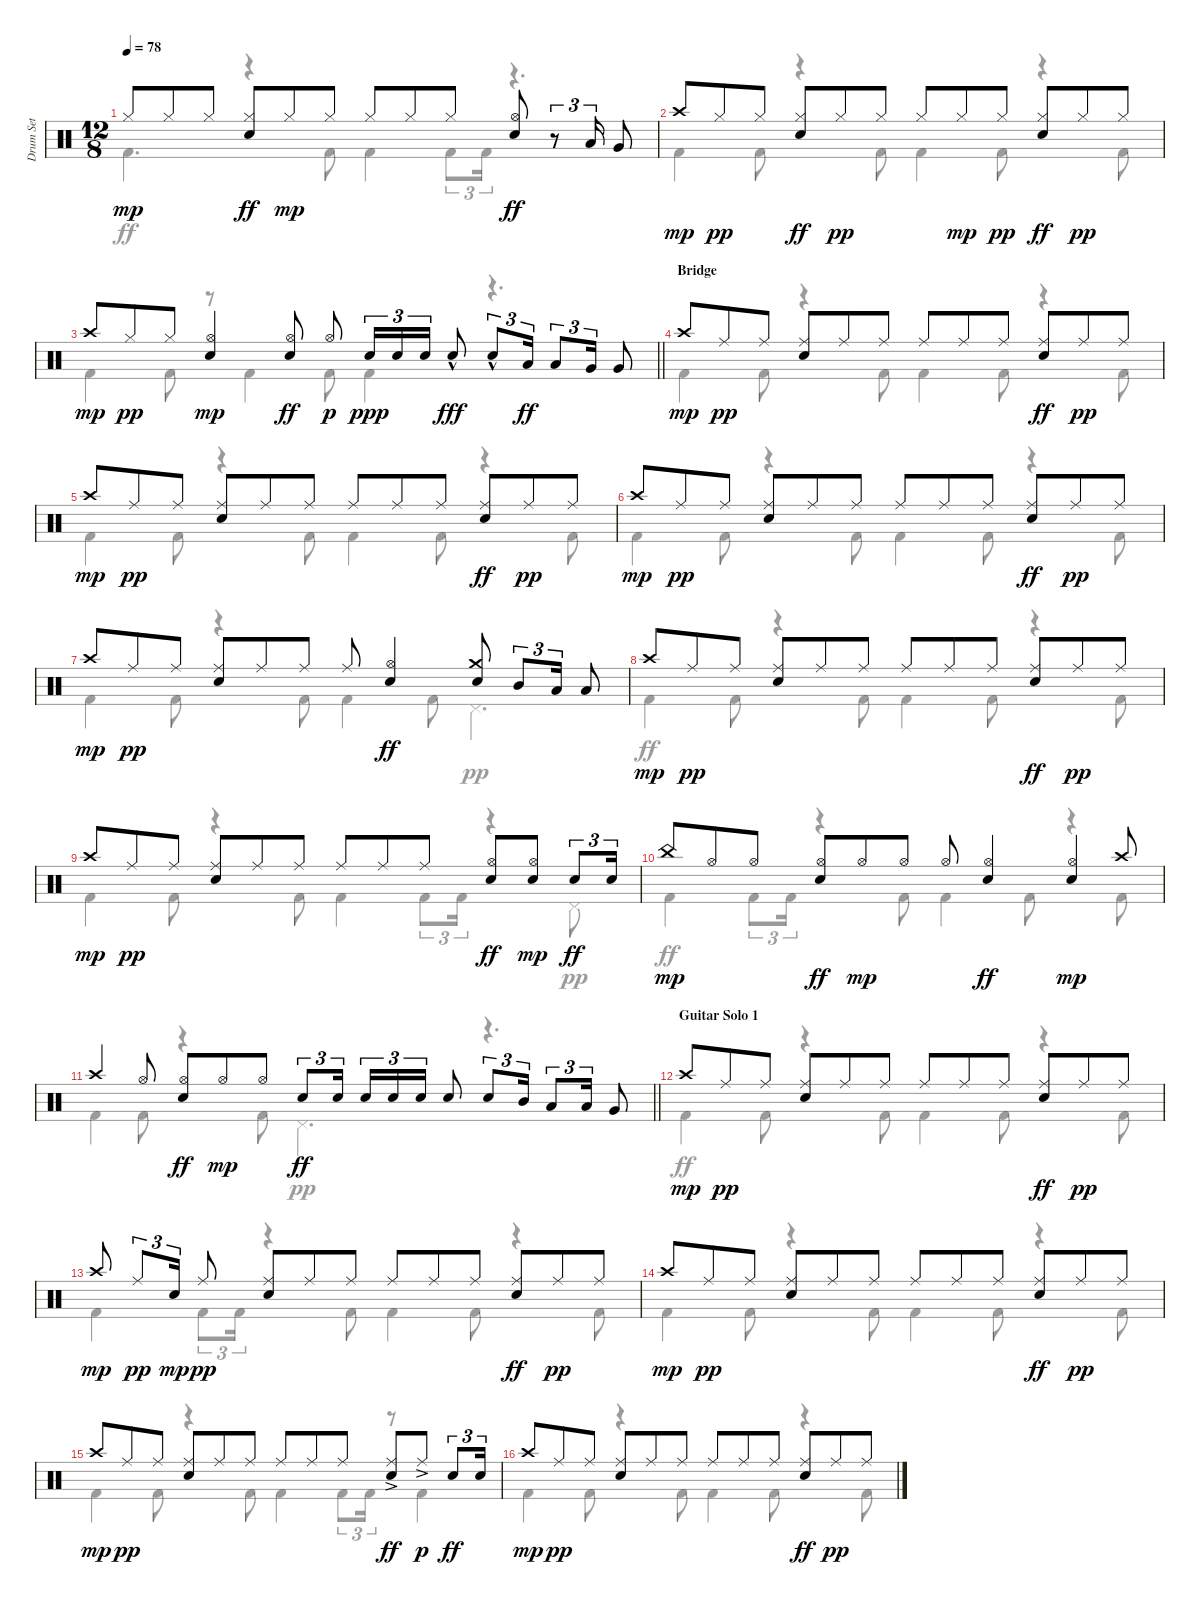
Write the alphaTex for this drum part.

\track ("Drum Set" "Drum Set") {instrument percussion}
\staff {score}
\articulation defaults
\voice
\ts (12 8)
\tempo 78
\clef neutral
\ks c "Hi-Hat (closed)".8{dy mp} "Hi-Hat (closed)".8 "Hi-Hat (closed)".8
("Hi-Hat (closed)" "Electric Snare (hit)").8{dy ff} "Hi-Hat (closed)".8{dy mp} "Hi-Hat (closed)".8 "Hi-Hat (closed)".8 "Hi-Hat (closed)".8 "Hi-Hat (closed)".8 ("Hi-Hat (open)" "Electric Snare (hit)").8{dy ff} r.8{tu (3 2)} "Low Tom (hit)".16{tu (3 2)} "Very Low Tom (hit)".8 |
"Crash high (hit)".8{dy mp} "Hi-Hat (closed)".8{dy pp} "Hi-Hat (closed)".8 ("Hi-Hat (closed)" "Electric Snare (hit)").8{dy ff} "Hi-Hat (closed)".8{dy pp} "Hi-Hat (closed)".8 "Hi-Hat (closed)".8 "Hi-Hat (closed)".8{dy mp} "Hi-Hat (closed)".8{dy pp} ("Hi-Hat (closed)" "Electric Snare (hit)").8{dy ff} "Hi-Hat (closed)".8{dy pp} "Hi-Hat (closed)".8 |
\barLineRight lightlight "Crash high (hit)".8{dy mp} "Hi-Hat (closed)".8{dy pp} "Hi-Hat (closed)".8
("Electric Snare (hit)" "Hi-Hat (open)").4{dy mp} ("Hi-Hat (open)" "Electric Snare (hit)").8{dy ff} "Hi-Hat (open)".8{dy p} "Snare (hit) 2".16{tu (3 2) dy ppp} "Snare (hit) 2".16{tu (3 2)} "Snare (hit) 2".16{tu (3 2)} "Electric Snare (hit)"{hac}.8{dy fff} "Electric Snare (hit)"{hac}.8{tu (3 2)} "Low Tom (hit)".16{tu (3 2) dy ff} "Low Tom (hit)".8{tu (3 2)} "Very Low Tom (hit)".16{tu (3 2)} "Very Low Tom (hit)".8 |
\section ("" "Bridge")
"Crash high (hit)".8{dy mp} "Ride (middle)".8{dy pp} "Ride (middle)".8 ("Electric Snare (hit)" "Ride (middle)").8 "Ride (middle)".8 "Ride (middle)".8 "Ride (middle)".8 "Ride (middle)".8 "Ride (middle)".8 ("Ride (middle)" "Electric Snare (hit)").8{dy ff} "Ride (middle)".8{dy pp} "Ride (middle)".8 |
"Crash high (hit)".8{dy mp} "Ride (middle)".8{dy pp} "Ride (middle)".8 ("Electric Snare (hit)" "Ride (middle)").8 "Ride (middle)".8 "Ride (middle)".8 "Ride (middle)".8 "Ride (middle)".8 "Ride (middle)".8 ("Ride (middle)" "Electric Snare (hit)").8{dy ff} "Ride (middle)".8{dy pp} "Ride (middle)".8 |
"Crash high (hit)".8{dy mp} "Ride (middle)".8{dy pp} "Ride (middle)".8 ("Electric Snare (hit)" "Ride (middle)").8 "Ride (middle)".8 "Ride (middle)".8 "Ride (middle)".8 "Ride (middle)".8 "Ride (middle)".8 ("Ride (middle)" "Electric Snare (hit)").8{dy ff} "Ride (middle)".8{dy pp} "Ride (middle)".8 |
"Crash high (hit)".8{dy mp} "Ride (middle)".8{dy pp} "Ride (middle)".8 ("Electric Snare (hit)" "Ride (middle)").8 "Ride (middle)".8 "Ride (middle)".8 "Ride (middle)".8 ("Hi-Hat (open)" "Electric Snare (hit)").4{dy ff} ("Crash medium (hit)" "Electric Snare (hit)").8 "Mid Tom (hit)".8{tu (3 2)} "Low Tom (hit)".16{tu (3 2)} "Low Tom (hit)".8 |
"Crash high (hit)".8{dy mp} "Ride (middle)".8{dy pp} "Ride (middle)".8 ("Electric Snare (hit)" "Ride (middle)").8 "Ride (middle)".8 "Ride (middle)".8 "Ride (middle)".8 "Ride (middle)".8 "Ride (middle)".8 ("Ride (middle)" "Electric Snare (hit)").8{dy ff} "Ride (middle)".8{dy pp} "Ride (middle)".8 |
"Crash high (hit)".8{dy mp} "Ride (middle)".8{dy pp} "Ride (middle)".8 ("Electric Snare (hit)" "Ride (middle)").8 "Ride (middle)".8 "Ride (middle)".8 "Ride (middle)".8 "Ride (middle)".8 "Ride (middle)".8 ("Hi-Hat (open)" "Electric Snare (hit)").8{dy ff} ("Electric Snare (hit)" "Hi-Hat (open)").8{dy mp} "Electric Snare (hit)".8{tu (3 2) dy ff} "Electric Snare (hit)".16{tu (3 2)} |
"China (hit)".8{dy mp} "Hi-Hat (open)".8 "Hi-Hat (open)".8 ("Hi-Hat (open)" "Electric Snare (hit)").8{dy ff} "Hi-Hat (open)".8{dy mp} "Hi-Hat (open)".8 "Hi-Hat (open)".8 ("Hi-Hat (open)" "Electric Snare (hit)").4{dy ff} ("Electric Snare (hit)" "Hi-Hat (open)").4{dy mp} "Crash high (hit)".8 |
\barLineRight lightlight "Crash high (hit)".4 "Hi-Hat (open)".8
("Hi-Hat (open)" "Electric Snare (hit)").8{dy ff} "Hi-Hat (open)".8{dy mp} "Hi-Hat (open)".8 "Electric Snare (hit)".8{tu (3 2) dy ff} "Electric Snare (hit)".16{tu (3 2) beam splitsecondary} "Electric Snare (hit)".16{tu (3 2)} "Electric Snare (hit)".16{tu (3 2)} "Electric Snare (hit)".16{tu (3 2)} "Electric Snare (hit)".8 "Electric Snare (hit)".8{tu (3 2)} "Mid Tom (hit)".16{tu (3 2)} "Low Tom (hit)".8{tu (3 2)} "Low Tom (hit)".16{tu (3 2)} "Very Low Tom (hit)".8 |
\section ("" "Guitar Solo 1")
"Crash high (hit)".8{dy mp} "Ride (middle)".8{dy pp} "Ride (middle)".8 ("Electric Snare (hit)" "Ride (middle)").8 "Ride (middle)".8 "Ride (middle)".8 "Ride (middle)".8 "Ride (middle)".8 "Ride (middle)".8 ("Ride (middle)" "Electric Snare (hit)").8{dy ff} "Ride (middle)".8{dy pp} "Ride (middle)".8 |
"Crash high (hit)".8{dy mp} "Ride (middle)".8{tu (3 2) dy pp} "Snare (hit) 2".16{tu (3 2) dy mp} "Ride (middle)".8{dy pp} ("Electric Snare (hit)" "Ride (middle)").8 "Ride (middle)".8 "Ride (middle)".8 "Ride (middle)".8 "Ride (middle)".8 "Ride (middle)".8 ("Ride (middle)" "Electric Snare (hit)").8{dy ff} "Ride (middle)".8{dy pp} "Ride (middle)".8 |
"Crash high (hit)".8{dy mp} "Ride (middle)".8{dy pp} "Ride (middle)".8 ("Electric Snare (hit)" "Ride (middle)").8 "Ride (middle)".8 "Ride (middle)".8 "Ride (middle)".8 "Ride (middle)".8 "Ride (middle)".8 ("Ride (middle)" "Electric Snare (hit)").8{dy ff} "Ride (middle)".8{dy pp} "Ride (middle)".8 |
"Crash high (hit)".8{dy mp} "Ride (middle)".8{dy pp} "Ride (middle)".8 ("Electric Snare (hit)" "Ride (middle)").8 "Ride (middle)".8 "Ride (middle)".8 "Ride (middle)".8 "Ride (middle)".8 "Ride (middle)".8 ("Ride (middle)"{ac} "Electric Snare (hit)").8{dy ff} "Ride (middle)"{ac}.8{dy p} "Electric Snare (hit)".8{tu (3 2) dy ff} "Electric Snare (hit)".16{tu (3 2)} |
"Crash high (hit)".8{dy mp} "Ride (middle)".8{dy pp} "Ride (middle)".8 ("Electric Snare (hit)" "Ride (middle)").8 "Ride (middle)".8 "Ride (middle)".8 "Ride (middle)".8 "Ride (middle)".8 "Ride (middle)".8 ("Ride (middle)" "Electric Snare (hit)").8{dy ff} "Ride (middle)".8{dy pp} "Ride (middle)".8
\voice
\clef neutral
\ottava regular
\simile none
\ks c "Kick (hit) 2".4{d dy ff}
r.4 "Kick (hit) 2".8 "Kick (hit) 2".4 "Kick (hit) 2".8{tu (3 2)} "Kick (hit) 2".16{tu (3 2)} r.4{d} |
"Kick (hit) 2".4 "Kick (hit) 2".8 r.4 "Kick (hit) 2".8 "Kick (hit) 2".4 "Kick (hit) 2".8 r.4 "Kick (hit) 2".8 |
\barLineRight lightlight "Kick (hit) 2".4 "Kick (hit) 2".8
r.8 "Kick (hit) 2".4 "Kick (hit) 2".8 "Kick (hit) 2".4 r.4{d} |
"Kick (hit) 2".4 "Kick (hit) 2".8 r.4 "Kick (hit) 2".8 "Kick (hit) 2".4 "Kick (hit) 2".8 r.4 "Kick (hit) 2".8 |
"Kick (hit) 2".4 "Kick (hit) 2".8 r.4 "Kick (hit) 2".8 "Kick (hit) 2".4 "Kick (hit) 2".8 r.4 "Kick (hit) 2".8 |
"Kick (hit) 2".4 "Kick (hit) 2".8 r.4 "Kick (hit) 2".8 "Kick (hit) 2".4 "Kick (hit) 2".8 r.4 "Kick (hit) 2".8 |
"Kick (hit) 2".4 "Kick (hit) 2".8 r.4 "Kick (hit) 2".8 "Kick (hit) 2".4 "Kick (hit) 2".8 "Pedal Hi-Hat (hit)".4{d dy pp} |
"Kick (hit) 2".4{dy ff} "Kick (hit) 2".8 r.4 "Kick (hit) 2".8 "Kick (hit) 2".4 "Kick (hit) 2".8 r.4 "Kick (hit) 2".8 |
"Kick (hit) 2".4 "Kick (hit) 2".8 r.4 "Kick (hit) 2".8 "Kick (hit) 2".4 "Kick (hit) 2".8{tu (3 2)} "Kick (hit) 2".16{tu (3 2)} r.4 "Pedal Hi-Hat (hit)".8{dy pp} |
"Kick (hit) 2".4{dy ff} "Kick (hit) 2".8{tu (3 2)} "Kick (hit) 2".16{tu (3 2)} r.4 "Kick (hit) 2".8 "Kick (hit) 2".4 "Kick (hit) 2".8 r.4 "Kick (hit) 2".8 |
\barLineRight lightlight "Kick (hit) 2".4 "Kick (hit) 2".8
r.4 "Kick (hit) 2".8 "Pedal Hi-Hat (hit)".4{d dy pp} r.4{d} |
"Kick (hit) 2".4{dy ff} "Kick (hit) 2".8 r.4 "Kick (hit) 2".8 "Kick (hit) 2".4 "Kick (hit) 2".8 r.4 "Kick (hit) 2".8 |
"Kick (hit) 2".4 "Kick (hit) 2".8{tu (3 2)} "Kick (hit) 2".16{tu (3 2)} r.4 "Kick (hit) 2".8 "Kick (hit) 2".4 "Kick (hit) 2".8 r.4 "Kick (hit) 2".8 |
"Kick (hit) 2".4 "Kick (hit) 2".8 r.4 "Kick (hit) 2".8 "Kick (hit) 2".4 "Kick (hit) 2".8 r.4 "Kick (hit) 2".8 |
"Kick (hit) 2".4 "Kick (hit) 2".8 r.4 "Kick (hit) 2".8 "Kick (hit) 2".4 "Kick (hit) 2".8{tu (3 2)} "Kick (hit) 2".16{tu (3 2)} r.8 "Kick (hit) 2".4 |
"Kick (hit) 2".4 "Kick (hit) 2".8 r.4 "Kick (hit) 2".8 "Kick (hit) 2".4 "Kick (hit) 2".8 r.4 "Kick (hit) 2".8
